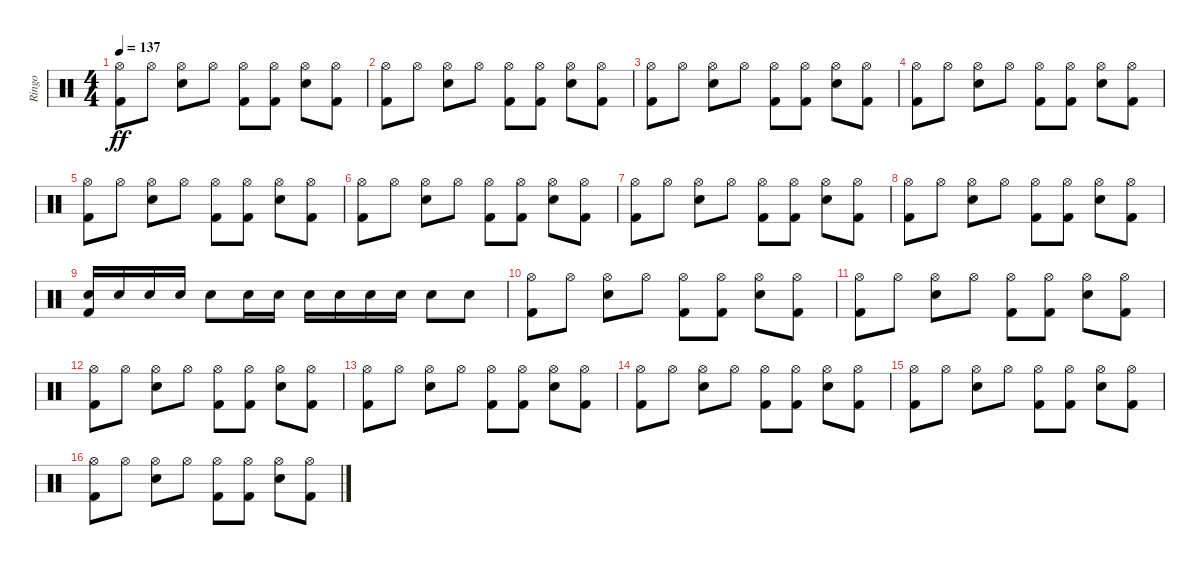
\track ("Ringo" "Ringo") {instrument percussion}
\staff {score}
\articulation defaults
\ts (4 4)
\tempo 137
\clef neutral
\ks c
("Kick (hit) 2" "Hi-Hat (open)").8{dy ff} "Hi-Hat (open)".8 ("Snare (hit) 2" "Hi-Hat (open)").8 "Hi-Hat (open)".8 ("Kick (hit) 2" "Hi-Hat (open)").8 ("Kick (hit) 2" "Hi-Hat (open)").8 ("Snare (hit) 2" "Hi-Hat (open)").8 ("Kick (hit) 2" "Hi-Hat (open)").8 |
("Kick (hit) 2" "Hi-Hat (open)").8 "Hi-Hat (open)".8 ("Snare (hit) 2" "Hi-Hat (open)").8 "Hi-Hat (open)".8 ("Kick (hit) 2" "Hi-Hat (open)").8 ("Kick (hit) 2" "Hi-Hat (open)").8 ("Snare (hit) 2" "Hi-Hat (open)").8 ("Kick (hit) 2" "Hi-Hat (open)").8 |
("Kick (hit) 2" "Hi-Hat (open)").8 "Hi-Hat (open)".8 ("Snare (hit) 2" "Hi-Hat (open)").8 "Hi-Hat (open)".8 ("Kick (hit) 2" "Hi-Hat (open)").8 ("Kick (hit) 2" "Hi-Hat (open)").8 ("Snare (hit) 2" "Hi-Hat (open)").8 ("Kick (hit) 2" "Hi-Hat (open)").8 |
("Kick (hit) 2" "Hi-Hat (open)").8 "Hi-Hat (open)".8 ("Snare (hit) 2" "Hi-Hat (open)").8 "Hi-Hat (open)".8 ("Kick (hit) 2" "Hi-Hat (open)").8 ("Kick (hit) 2" "Hi-Hat (open)").8 ("Snare (hit) 2" "Hi-Hat (open)").8 ("Kick (hit) 2" "Hi-Hat (open)").8 |
("Kick (hit) 2" "Hi-Hat (open)").8 "Hi-Hat (open)".8 ("Snare (hit) 2" "Hi-Hat (open)").8 "Hi-Hat (open)".8 ("Kick (hit) 2" "Hi-Hat (open)").8 ("Kick (hit) 2" "Hi-Hat (open)").8 ("Snare (hit) 2" "Hi-Hat (open)").8 ("Kick (hit) 2" "Hi-Hat (open)").8 |
("Kick (hit) 2" "Hi-Hat (open)").8 "Hi-Hat (open)".8 ("Snare (hit) 2" "Hi-Hat (open)").8 "Hi-Hat (open)".8 ("Kick (hit) 2" "Hi-Hat (open)").8 ("Kick (hit) 2" "Hi-Hat (open)").8 ("Snare (hit) 2" "Hi-Hat (open)").8 ("Kick (hit) 2" "Hi-Hat (open)").8 |
("Kick (hit) 2" "Hi-Hat (open)").8 "Hi-Hat (open)".8 ("Snare (hit) 2" "Hi-Hat (open)").8 "Hi-Hat (open)".8 ("Kick (hit) 2" "Hi-Hat (open)").8 ("Kick (hit) 2" "Hi-Hat (open)").8 ("Snare (hit) 2" "Hi-Hat (open)").8 ("Kick (hit) 2" "Hi-Hat (open)").8 |
("Kick (hit) 2" "Hi-Hat (open)").8 "Hi-Hat (open)".8 ("Snare (hit) 2" "Hi-Hat (open)").8 "Hi-Hat (open)".8 ("Kick (hit) 2" "Hi-Hat (open)").8 ("Kick (hit) 2" "Hi-Hat (open)").8 ("Snare (hit) 2" "Hi-Hat (open)").8 ("Kick (hit) 2" "Hi-Hat (open)").8 |
("Kick (hit) 2" "Snare (hit) 2").16 "Snare (hit) 2".16 "Snare (hit) 2".16 "Snare (hit) 2".16 "Snare (hit) 2".8 "Snare (hit) 2".16 "Snare (hit) 2".16 "Snare (hit) 2".16 "Snare (hit) 2".16 "Snare (hit) 2".16 "Snare (hit) 2".16 "Snare (hit) 2".8 "Snare (hit) 2".8 |
("Kick (hit) 2" "Hi-Hat (open)").8 "Hi-Hat (open)".8 ("Snare (hit) 2" "Hi-Hat (open)").8 "Hi-Hat (open)".8 ("Kick (hit) 2" "Hi-Hat (open)").8 ("Kick (hit) 2" "Hi-Hat (open)").8 ("Snare (hit) 2" "Hi-Hat (open)").8 ("Kick (hit) 2" "Hi-Hat (open)").8 |
("Kick (hit) 2" "Hi-Hat (open)").8 "Hi-Hat (open)".8 ("Snare (hit) 2" "Hi-Hat (open)").8 "Hi-Hat (open)".8 ("Kick (hit) 2" "Hi-Hat (open)").8 ("Kick (hit) 2" "Hi-Hat (open)").8 ("Snare (hit) 2" "Hi-Hat (open)").8 ("Kick (hit) 2" "Hi-Hat (open)").8 |
("Kick (hit) 2" "Hi-Hat (open)").8 "Hi-Hat (open)".8 ("Snare (hit) 2" "Hi-Hat (open)").8 "Hi-Hat (open)".8 ("Kick (hit) 2" "Hi-Hat (open)").8 ("Kick (hit) 2" "Hi-Hat (open)").8 ("Snare (hit) 2" "Hi-Hat (open)").8 ("Kick (hit) 2" "Hi-Hat (open)").8 |
("Kick (hit) 2" "Hi-Hat (open)").8 "Hi-Hat (open)".8 ("Snare (hit) 2" "Hi-Hat (open)").8 "Hi-Hat (open)".8 ("Kick (hit) 2" "Hi-Hat (open)").8 ("Kick (hit) 2" "Hi-Hat (open)").8 ("Snare (hit) 2" "Hi-Hat (open)").8 ("Kick (hit) 2" "Hi-Hat (open)").8 |
("Kick (hit) 2" "Hi-Hat (open)").8 "Hi-Hat (open)".8 ("Snare (hit) 2" "Hi-Hat (open)").8 "Hi-Hat (open)".8 ("Kick (hit) 2" "Hi-Hat (open)").8 ("Kick (hit) 2" "Hi-Hat (open)").8 ("Snare (hit) 2" "Hi-Hat (open)").8 ("Kick (hit) 2" "Hi-Hat (open)").8 |
("Kick (hit) 2" "Hi-Hat (open)").8 "Hi-Hat (open)".8 ("Snare (hit) 2" "Hi-Hat (open)").8 "Hi-Hat (open)".8 ("Kick (hit) 2" "Hi-Hat (open)").8 ("Kick (hit) 2" "Hi-Hat (open)").8 ("Snare (hit) 2" "Hi-Hat (open)").8 ("Kick (hit) 2" "Hi-Hat (open)").8 |
("Kick (hit) 2" "Hi-Hat (open)").8 "Hi-Hat (open)".8 ("Snare (hit) 2" "Hi-Hat (open)").8 "Hi-Hat (open)".8 ("Kick (hit) 2" "Hi-Hat (open)").8 ("Kick (hit) 2" "Hi-Hat (open)").8 ("Snare (hit) 2" "Hi-Hat (open)").8 ("Kick (hit) 2" "Hi-Hat (open)").8
